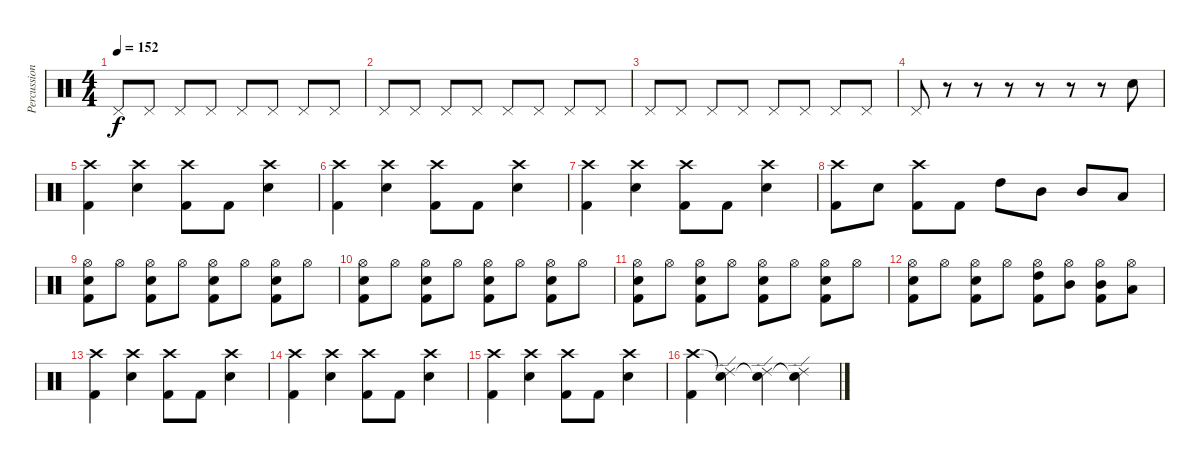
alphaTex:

\track ("Percussion" "Percussion") {instrument percussion}
\staff {score}
\articulation defaults
\ts (4 4)
\tempo 152
\clef neutral
\ks c "Pedal Hi-Hat (hit)".8{dy f} "Pedal Hi-Hat (hit)".8 "Pedal Hi-Hat (hit)".8 "Pedal Hi-Hat (hit)".8 "Pedal Hi-Hat (hit)".8 "Pedal Hi-Hat (hit)".8 "Pedal Hi-Hat (hit)".8 "Pedal Hi-Hat (hit)".8
|
"Pedal Hi-Hat (hit)".8 "Pedal Hi-Hat (hit)".8 "Pedal Hi-Hat (hit)".8 "Pedal Hi-Hat (hit)".8 "Pedal Hi-Hat (hit)".8 "Pedal Hi-Hat (hit)".8 "Pedal Hi-Hat (hit)".8 "Pedal Hi-Hat (hit)".8 |
"Pedal Hi-Hat (hit)".8 "Pedal Hi-Hat (hit)".8 "Pedal Hi-Hat (hit)".8 "Pedal Hi-Hat (hit)".8 "Pedal Hi-Hat (hit)".8 "Pedal Hi-Hat (hit)".8 "Pedal Hi-Hat (hit)".8 "Pedal Hi-Hat (hit)".8 |
"Pedal Hi-Hat (hit)".8 r.8 r.8 r.8 r.8 r.8 r.8 "Snare (hit) 2".8 |
("Crash high (hit)" "Kick (hit) 2").4 ("Crash high (hit)" "Snare (hit) 2").4 ("Crash high (hit)" "Kick (hit) 2").8 "Kick (hit) 2".8 ("Crash high (hit)" "Snare (hit) 2").4 |
("Crash high (hit)" "Kick (hit) 2").4 ("Crash high (hit)" "Snare (hit) 2").4 ("Crash high (hit)" "Kick (hit) 2").8 "Kick (hit) 2".8 ("Crash high (hit)" "Snare (hit) 2").4 |
("Crash high (hit)" "Kick (hit) 2").4 ("Crash high (hit)" "Snare (hit) 2").4 ("Crash high (hit)" "Kick (hit) 2").8 "Kick (hit) 2".8 ("Crash high (hit)" "Snare (hit) 2").4 |
("Crash high (hit)" "Kick (hit) 2").8 "Snare (hit) 2".8 ("Crash high (hit)" "Kick (hit) 2").8 "Kick (hit) 2".8 "High Tom (hit)".8 "Mid Tom (hit)".8 "Mid Tom (hit)".8 "Low Tom (hit)".8 |
("Hi-Hat (open)" "Snare (hit) 2" "Kick (hit) 2").8 "Hi-Hat (open)".8 ("Hi-Hat (open)" "Snare (hit) 2" "Kick (hit) 2").8 "Hi-Hat (open)".8 ("Hi-Hat (open)" "Snare (hit) 2" "Kick (hit) 2").8 "Hi-Hat (open)".8 ("Hi-Hat (open)" "Snare (hit) 2" "Kick (hit) 2").8 "Hi-Hat (open)".8 |
("Hi-Hat (open)" "Snare (hit) 2" "Kick (hit) 2").8 "Hi-Hat (open)".8 ("Hi-Hat (open)" "Snare (hit) 2" "Kick (hit) 2").8 "Hi-Hat (open)".8 ("Hi-Hat (open)" "Snare (hit) 2" "Kick (hit) 2").8 "Hi-Hat (open)".8 ("Hi-Hat (open)" "Snare (hit) 2" "Kick (hit) 2").8 "Hi-Hat (open)".8 |
("Hi-Hat (open)" "Snare (hit) 2" "Kick (hit) 2").8 "Hi-Hat (open)".8 ("Hi-Hat (open)" "Snare (hit) 2" "Kick (hit) 2").8 "Hi-Hat (open)".8 ("Hi-Hat (open)" "Snare (hit) 2" "Kick (hit) 2").8 "Hi-Hat (open)".8 ("Hi-Hat (open)" "Snare (hit) 2" "Kick (hit) 2").8 "Hi-Hat (open)".8 |
("Hi-Hat (open)" "Snare (hit) 2" "Kick (hit) 2").8 "Hi-Hat (open)".8 ("Hi-Hat (open)" "Snare (hit) 2" "Kick (hit) 2").8 "Hi-Hat (open)".8 ("Hi-Hat (open)" "High Tom (hit)" "Kick (hit) 2").8 ("Hi-Hat (open)" "Mid Tom (hit)").8 ("Hi-Hat (open)" "Mid Tom (hit)" "Kick (hit) 2").8 ("Hi-Hat (open)" "Low Tom (hit)").8 |
("Crash high (hit)" "Kick (hit) 2").4 ("Crash high (hit)" "Snare (hit) 2").4 ("Crash high (hit)" "Kick (hit) 2").8 "Kick (hit) 2".8 ("Crash high (hit)" "Snare (hit) 2").4 |
("Crash high (hit)" "Kick (hit) 2").4 ("Crash high (hit)" "Snare (hit) 2").4 ("Crash high (hit)" "Kick (hit) 2").8 "Kick (hit) 2".8 ("Crash high (hit)" "Snare (hit) 2").4 |
("Crash high (hit)" "Kick (hit) 2").4 ("Crash high (hit)" "Snare (hit) 2").4 ("Crash high (hit)" "Kick (hit) 2").8 "Kick (hit) 2".8 ("Crash high (hit)" "Snare (hit) 2").4 |
("Crash high (hit)" "Kick (hit) 2").4 ("Snare (hit)"{t} "Ride (edge) 2").4 ("Snare (hit)"{t} "Ride (edge) 2").4 ("Snare (hit)"{t} "Ride (edge) 2").4
